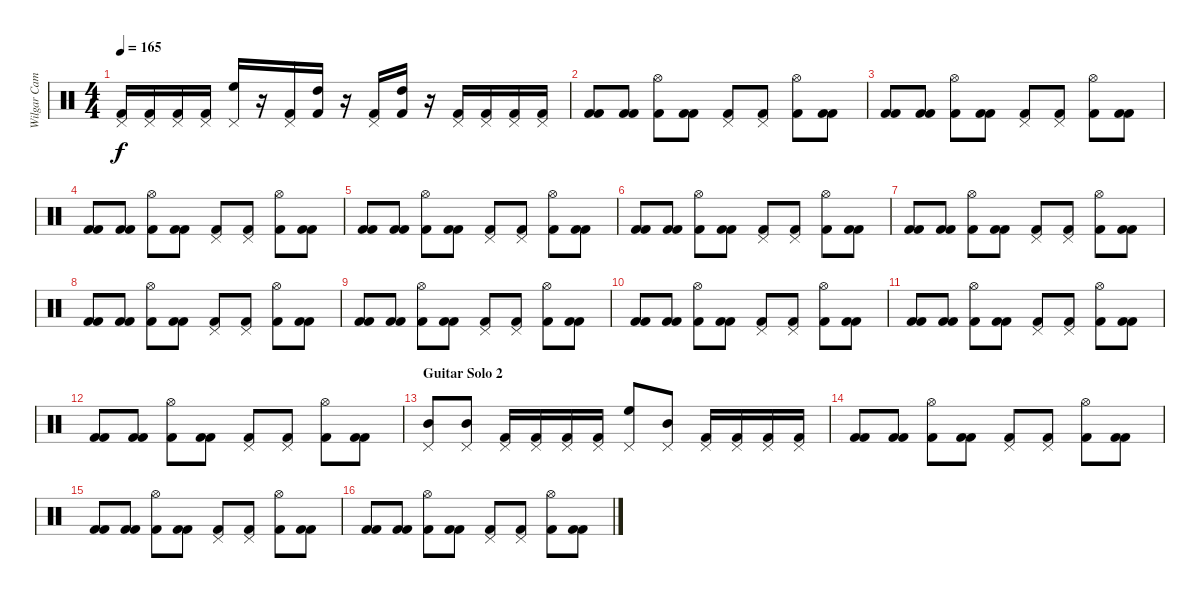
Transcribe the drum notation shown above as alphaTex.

\track ("Wilgar Campbell" "Wilgar Cam") {instrument percussion}
\staff {score}
\articulation defaults
\ts (4 4)
\tempo 165
\clef neutral
\ks c
("Pedal Hi-Hat (hit)" "Kick (hit) 2").16{dy f} ("Pedal Hi-Hat (hit)" "Kick (hit) 2").16 ("Pedal Hi-Hat (hit)" "Kick (hit) 2").16 ("Pedal Hi-Hat (hit)" "Kick (hit) 2").16 ("Pedal Hi-Hat (hit)" "High Floor Tom (hit)").16 r.16 ("Pedal Hi-Hat (hit)" "Kick (hit) 2").16 ("High Tom (hit)" "Kick (hit) 2").16 r.16 ("Pedal Hi-Hat (hit)" "Kick (hit) 2").16 ("High Tom (hit)" "Kick (hit) 2").16 r.16 ("Pedal Hi-Hat (hit)" "Kick (hit) 2").16 ("Pedal Hi-Hat (hit)" "Kick (hit) 2").16 ("Pedal Hi-Hat (hit)" "Kick (hit) 2").16 ("Pedal Hi-Hat (hit)" "Kick (hit) 2").16 |
("Kick (hit) 2" "Kick (hit) 2").8 ("Kick (hit) 2" "Kick (hit) 2").8 ("Hi-Hat (open)" "Kick (hit) 2").8 ("Kick (hit) 2" "Kick (hit) 2").8 ("Pedal Hi-Hat (hit)" "Kick (hit) 2").8 ("Pedal Hi-Hat (hit)" "Kick (hit) 2").8 ("Hi-Hat (open)" "Kick (hit) 2").8 ("Kick (hit) 2" "Kick (hit) 2").8 |
("Kick (hit) 2" "Kick (hit) 2").8 ("Kick (hit) 2" "Kick (hit) 2").8 ("Hi-Hat (open)" "Kick (hit) 2").8 ("Kick (hit) 2" "Kick (hit) 2").8 ("Pedal Hi-Hat (hit)" "Kick (hit) 2").8 ("Pedal Hi-Hat (hit)" "Kick (hit) 2").8 ("Hi-Hat (open)" "Kick (hit) 2").8 ("Kick (hit) 2" "Kick (hit) 2").8 |
("Kick (hit) 2" "Kick (hit) 2").8 ("Kick (hit) 2" "Kick (hit) 2").8 ("Hi-Hat (open)" "Kick (hit) 2").8 ("Kick (hit) 2" "Kick (hit) 2").8 ("Pedal Hi-Hat (hit)" "Kick (hit) 2").8 ("Pedal Hi-Hat (hit)" "Kick (hit) 2").8 ("Hi-Hat (open)" "Kick (hit) 2").8 ("Kick (hit) 2" "Kick (hit) 2").8 |
("Kick (hit) 2" "Kick (hit) 2").8 ("Kick (hit) 2" "Kick (hit) 2").8 ("Hi-Hat (open)" "Kick (hit) 2").8 ("Kick (hit) 2" "Kick (hit) 2").8 ("Pedal Hi-Hat (hit)" "Kick (hit) 2").8 ("Pedal Hi-Hat (hit)" "Kick (hit) 2").8 ("Hi-Hat (open)" "Kick (hit) 2").8 ("Kick (hit) 2" "Kick (hit) 2").8 |
("Kick (hit) 2" "Kick (hit) 2").8 ("Kick (hit) 2" "Kick (hit) 2").8 ("Hi-Hat (open)" "Kick (hit) 2").8 ("Kick (hit) 2" "Kick (hit) 2").8 ("Pedal Hi-Hat (hit)" "Kick (hit) 2").8 ("Pedal Hi-Hat (hit)" "Kick (hit) 2").8 ("Hi-Hat (open)" "Kick (hit) 2").8 ("Kick (hit) 2" "Kick (hit) 2").8 |
("Kick (hit) 2" "Kick (hit) 2").8 ("Kick (hit) 2" "Kick (hit) 2").8 ("Hi-Hat (open)" "Kick (hit) 2").8 ("Kick (hit) 2" "Kick (hit) 2").8 ("Pedal Hi-Hat (hit)" "Kick (hit) 2").8 ("Pedal Hi-Hat (hit)" "Kick (hit) 2").8 ("Hi-Hat (open)" "Kick (hit) 2").8 ("Kick (hit) 2" "Kick (hit) 2").8 |
("Kick (hit) 2" "Kick (hit) 2").8 ("Kick (hit) 2" "Kick (hit) 2").8 ("Hi-Hat (open)" "Kick (hit) 2").8 ("Kick (hit) 2" "Kick (hit) 2").8 ("Pedal Hi-Hat (hit)" "Kick (hit) 2").8 ("Pedal Hi-Hat (hit)" "Kick (hit) 2").8 ("Hi-Hat (open)" "Kick (hit) 2").8 ("Kick (hit) 2" "Kick (hit) 2").8 |
("Kick (hit) 2" "Kick (hit) 2").8 ("Kick (hit) 2" "Kick (hit) 2").8 ("Hi-Hat (open)" "Kick (hit) 2").8 ("Kick (hit) 2" "Kick (hit) 2").8 ("Pedal Hi-Hat (hit)" "Kick (hit) 2").8 ("Pedal Hi-Hat (hit)" "Kick (hit) 2").8 ("Hi-Hat (open)" "Kick (hit) 2").8 ("Kick (hit) 2" "Kick (hit) 2").8 |
("Kick (hit) 2" "Kick (hit) 2").8 ("Kick (hit) 2" "Kick (hit) 2").8 ("Hi-Hat (open)" "Kick (hit) 2").8 ("Kick (hit) 2" "Kick (hit) 2").8 ("Pedal Hi-Hat (hit)" "Kick (hit) 2").8 ("Pedal Hi-Hat (hit)" "Kick (hit) 2").8 ("Hi-Hat (open)" "Kick (hit) 2").8 ("Kick (hit) 2" "Kick (hit) 2").8 |
("Kick (hit) 2" "Kick (hit) 2").8 ("Kick (hit) 2" "Kick (hit) 2").8 ("Hi-Hat (open)" "Kick (hit) 2").8 ("Kick (hit) 2" "Kick (hit) 2").8 ("Pedal Hi-Hat (hit)" "Kick (hit) 2").8 ("Pedal Hi-Hat (hit)" "Kick (hit) 2").8 ("Hi-Hat (open)" "Kick (hit) 2").8 ("Kick (hit) 2" "Kick (hit) 2").8 |
("Kick (hit) 2" "Kick (hit) 2").8 ("Kick (hit) 2" "Kick (hit) 2").8 ("Hi-Hat (open)" "Kick (hit) 2").8 ("Kick (hit) 2" "Kick (hit) 2").8 ("Pedal Hi-Hat (hit)" "Kick (hit) 2").8 ("Pedal Hi-Hat (hit)" "Kick (hit) 2").8 ("Hi-Hat (open)" "Kick (hit) 2").8 ("Kick (hit) 2" "Kick (hit) 2").8 |
\section ("" "Guitar Solo 2")
("Pedal Hi-Hat (hit)" "Mid Tom (hit)").8 ("Pedal Hi-Hat (hit)" "Mid Tom (hit)").8 ("Pedal Hi-Hat (hit)" "Kick (hit) 2").16 ("Pedal Hi-Hat (hit)" "Kick (hit) 2").16 ("Pedal Hi-Hat (hit)" "Kick (hit) 2").16 ("Pedal Hi-Hat (hit)" "Kick (hit) 2").16 ("Pedal Hi-Hat (hit)" "High Floor Tom (hit)").8 ("Pedal Hi-Hat (hit)" "Mid Tom (hit)").8 ("Pedal Hi-Hat (hit)" "Kick (hit) 2").16 ("Pedal Hi-Hat (hit)" "Kick (hit) 2").16 ("Pedal Hi-Hat (hit)" "Kick (hit) 2").16 ("Pedal Hi-Hat (hit)" "Kick (hit) 2").16 |
("Kick (hit) 2" "Kick (hit) 2").8 ("Kick (hit) 2" "Kick (hit) 2").8 ("Hi-Hat (open)" "Kick (hit) 2").8 ("Kick (hit) 2" "Kick (hit) 2").8 ("Pedal Hi-Hat (hit)" "Kick (hit) 2").8 ("Pedal Hi-Hat (hit)" "Kick (hit) 2").8 ("Hi-Hat (open)" "Kick (hit) 2").8 ("Kick (hit) 2" "Kick (hit) 2").8 |
("Kick (hit) 2" "Kick (hit) 2").8 ("Kick (hit) 2" "Kick (hit) 2").8 ("Hi-Hat (open)" "Kick (hit) 2").8 ("Kick (hit) 2" "Kick (hit) 2").8 ("Pedal Hi-Hat (hit)" "Kick (hit) 2").8 ("Pedal Hi-Hat (hit)" "Kick (hit) 2").8 ("Hi-Hat (open)" "Kick (hit) 2").8 ("Kick (hit) 2" "Kick (hit) 2").8 |
("Kick (hit) 2" "Kick (hit) 2").8 ("Kick (hit) 2" "Kick (hit) 2").8 ("Hi-Hat (open)" "Kick (hit) 2").8 ("Kick (hit) 2" "Kick (hit) 2").8 ("Pedal Hi-Hat (hit)" "Kick (hit) 2").8 ("Pedal Hi-Hat (hit)" "Kick (hit) 2").8 ("Hi-Hat (open)" "Kick (hit) 2").8 ("Kick (hit) 2" "Kick (hit) 2").8
